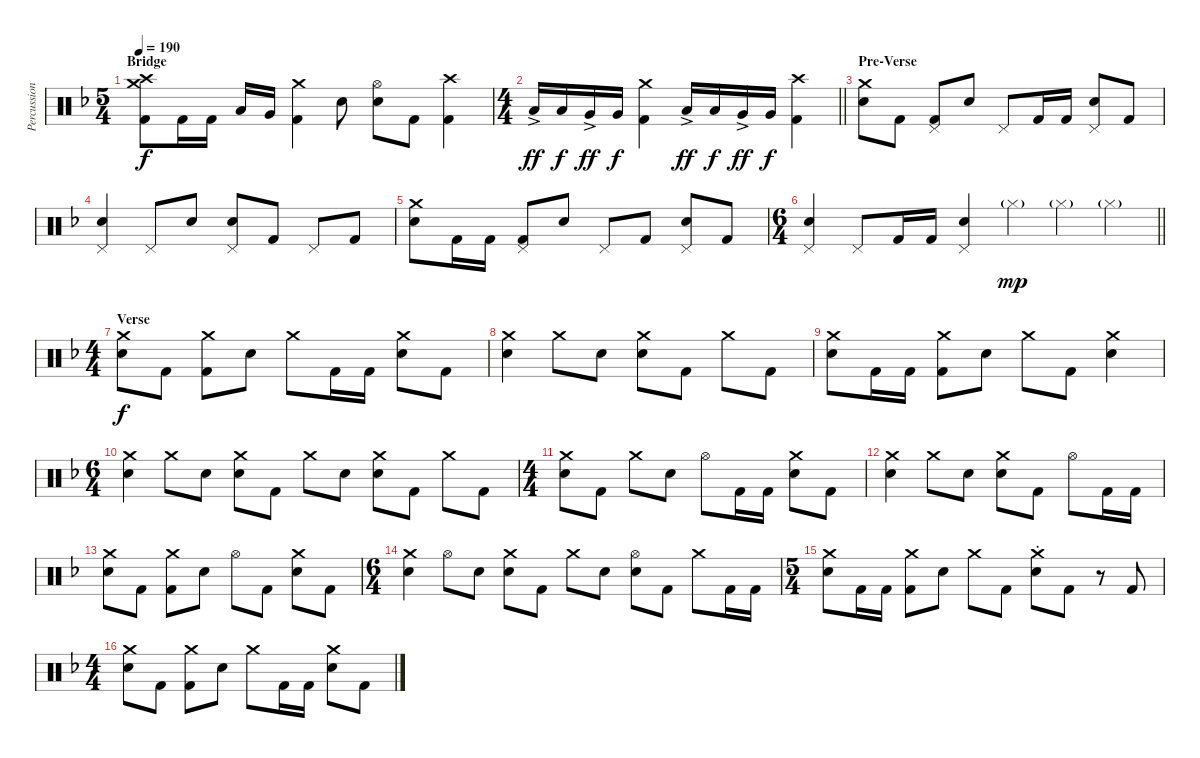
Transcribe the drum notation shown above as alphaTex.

\track ("Percussion" "Percussion") {instrument percussion}
\staff {score}
\articulation defaults
\ts (5 4)
\section ("" "Bridge")
\tempo 190
\clef neutral
\ks f
("Crash medium (hit)" "Crash high (hit)" "Kick (hit) 2").8{dy f} "Kick (hit) 2".16 "Kick (hit) 2".16 "Low Tom (hit)".16 "Very Low Tom (hit)".16 ("Crash medium (hit)" "Kick (hit) 2").4 "Electric Snare (hit)".8 ("Hi-Hat (open)" "Electric Snare (hit)").8 "Kick (hit) 2".8 ("Crash high (hit)" "Kick (hit) 2").4 |
\ts (4 4)
\barLineRight lightlight "Low Tom (hit)"{ac}.16{dy ff} "Low Tom (hit)".16{dy f} "Very Low Tom (hit)"{ac}.16{dy ff} "Very Low Tom (hit)".16{dy f}
("Crash medium (hit)" "Kick (hit) 2").4 "Low Tom (hit)"{ac}.16{dy ff} "Low Tom (hit)".16{dy f} "Very Low Tom (hit)"{ac}.16{dy ff} "Very Low Tom (hit)".16{dy f} ("Crash high (hit)" "Kick (hit) 2").4 |
\section ("" "Pre-Verse")
("Crash medium (hit)" "Electric Snare (hit)").8 "Kick (hit) 2".8 ("Pedal Hi-Hat (hit)" "Kick (hit) 2").8 "Electric Snare (hit)".8 "Pedal Hi-Hat (hit)".8 "Kick (hit) 2".16 "Kick (hit) 2".16 ("Pedal Hi-Hat (hit)" "Electric Snare (hit)").8 "Kick (hit) 2".8 |
("Pedal Hi-Hat (hit)" "Electric Snare (hit)").4 "Pedal Hi-Hat (hit)".8 "Electric Snare (hit)".8 ("Pedal Hi-Hat (hit)" "Electric Snare (hit)").8 "Kick (hit) 2".8 "Pedal Hi-Hat (hit)".8 "Kick (hit) 2".8 |
("Crash medium (hit)" "Electric Snare (hit)").8 "Kick (hit) 2".16 "Kick (hit) 2".16 ("Pedal Hi-Hat (hit)" "Kick (hit) 2").8 "Electric Snare (hit)".8 "Pedal Hi-Hat (hit)".8 "Kick (hit) 2".8 ("Pedal Hi-Hat (hit)" "Electric Snare (hit)").8 "Kick (hit) 2".8 |
\ts (6 4)
\barLineRight lightlight
("Pedal Hi-Hat (hit)" "Electric Snare (hit)").4 "Pedal Hi-Hat (hit)".8 "Kick (hit) 2".16 "Kick (hit) 2".16 ("Pedal Hi-Hat (hit)" "Electric Snare (hit)").4 "Hi-Hat (closed)"{g}.4{dy mp} "Hi-Hat (closed)"{g}.4 "Hi-Hat (closed)"{g}.4 |
\ts (4 4)
\section ("" "Verse")
("Crash medium (hit)" "Electric Snare (hit)").8{dy f} "Kick (hit) 2".8 ("Crash medium (hit)" "Kick (hit) 2").8 "Electric Snare (hit)".8 "Crash medium (hit)".8 "Kick (hit) 2".16 "Kick (hit) 2".16 ("Crash medium (hit)" "Electric Snare (hit)").8 "Kick (hit) 2".8 |
("Crash medium (hit)" "Electric Snare (hit)").4 "Crash medium (hit)".8 "Electric Snare (hit)".8 ("Crash medium (hit)" "Electric Snare (hit)").8 "Kick (hit) 2".8 "Crash medium (hit)".8 "Kick (hit) 2".8 |
("Crash medium (hit)" "Electric Snare (hit)").8 "Kick (hit) 2".16 "Kick (hit) 2".16 ("Crash medium (hit)" "Kick (hit) 2").8 "Electric Snare (hit)".8 "Crash medium (hit)".8 "Kick (hit) 2".8 ("Crash medium (hit)" "Electric Snare (hit)").4 |
\ts (6 4)
("Crash medium (hit)" "Electric Snare (hit)").4 "Crash medium (hit)".8 "Electric Snare (hit)".8 ("Crash medium (hit)" "Electric Snare (hit)").8 "Kick (hit) 2".8 "Crash medium (hit)".8 "Electric Snare (hit)".8 ("Crash medium (hit)" "Electric Snare (hit)").8 "Kick (hit) 2".8 "Crash medium (hit)".8 "Kick (hit) 2".8 |
\ts (4 4)
("Crash medium (hit)" "Electric Snare (hit)").8 "Kick (hit) 2".8 "Crash medium (hit)".8 "Electric Snare (hit)".8 "Hi-Hat (open)".8 "Kick (hit) 2".16 "Kick (hit) 2".16 ("Crash medium (hit)" "Electric Snare (hit)").8 "Kick (hit) 2".8 |
("Crash medium (hit)" "Electric Snare (hit)").4 "Crash medium (hit)".8 "Electric Snare (hit)".8 ("Crash medium (hit)" "Electric Snare (hit)").8 "Kick (hit) 2".8 "Hi-Hat (open)".8 "Kick (hit) 2".16 "Kick (hit) 2".16 |
("Crash medium (hit)" "Electric Snare (hit)").8 "Kick (hit) 2".8 ("Crash medium (hit)" "Kick (hit) 2").8 "Electric Snare (hit)".8 "Hi-Hat (open)".8 "Kick (hit) 2".8 ("Crash medium (hit)" "Electric Snare (hit)").8 "Kick (hit) 2".8 |
\ts (6 4)
("Crash medium (hit)" "Electric Snare (hit)").4 "Hi-Hat (open)".8 "Electric Snare (hit)".8 ("Crash medium (hit)" "Electric Snare (hit)").8 "Kick (hit) 2".8 "Crash medium (hit)".8 "Electric Snare (hit)".8 ("Hi-Hat (open)" "Electric Snare (hit)").8 "Kick (hit) 2".8 "Crash medium (hit)".8 "Kick (hit) 2".16 "Kick (hit) 2".16 |
\ts (5 4)
("Crash medium (hit)" "Electric Snare (hit)").8 "Kick (hit) 2".16 "Kick (hit) 2".16 ("Crash medium (hit)" "Kick (hit) 2").8 "Electric Snare (hit)".8 "Crash medium (hit)".8 "Kick (hit) 2".8 ("Crash medium (hit)"{st} "Electric Snare (hit)").8 "Kick (hit) 2".8 r.8{volume 0} "Kick (hit) 2".8{volume 14} |
\ts (4 4)
("Crash medium (hit)" "Electric Snare (hit)").8 "Kick (hit) 2".8 ("Crash medium (hit)" "Kick (hit) 2").8 "Electric Snare (hit)".8 "Crash medium (hit)".8 "Kick (hit) 2".16 "Kick (hit) 2".16 ("Crash medium (hit)" "Electric Snare (hit)").8 "Kick (hit) 2".8
